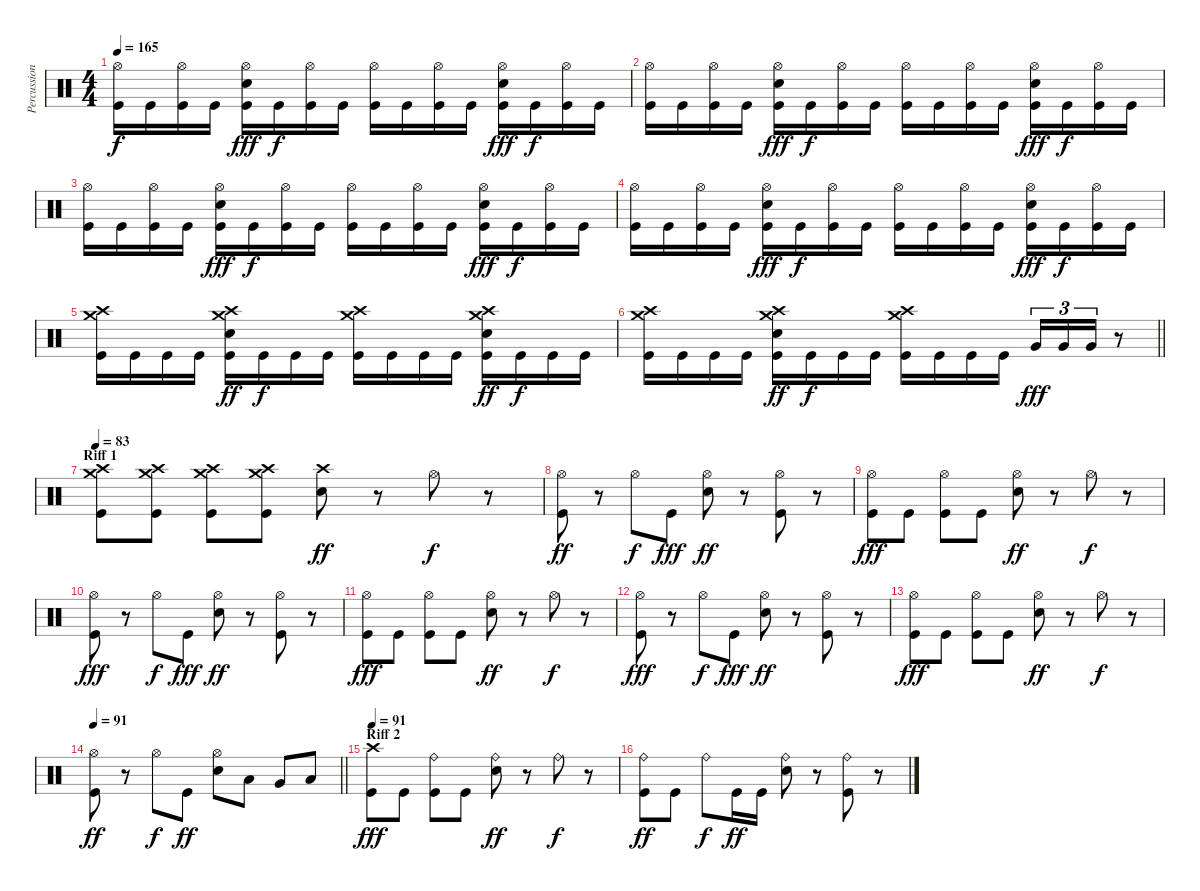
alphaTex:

\track ("Percussions" "Percussion") {instrument percussion}
\staff {score}
\articulation defaults
\ts (4 4)
\tempo 165
\clef neutral
\ks c
("Hi-Hat (open)" "Kick (hit)").16{dy f} "Kick (hit)".16 ("Hi-Hat (open)" "Kick (hit)").16 "Kick (hit)".16 ("Hi-Hat (open)" "Electric Snare (hit)" "Kick (hit)").16{dy fff} "Kick (hit)".16{dy f} ("Hi-Hat (open)" "Kick (hit)").16 "Kick (hit)".16 ("Hi-Hat (open)" "Kick (hit)").16 "Kick (hit)".16 ("Hi-Hat (open)" "Kick (hit)").16 "Kick (hit)".16 ("Hi-Hat (open)" "Electric Snare (hit)" "Kick (hit)").16{dy fff} "Kick (hit)".16{dy f} ("Hi-Hat (open)" "Kick (hit)").16 "Kick (hit)".16 |
("Hi-Hat (open)" "Kick (hit)").16 "Kick (hit)".16 ("Hi-Hat (open)" "Kick (hit)").16 "Kick (hit)".16 ("Hi-Hat (open)" "Electric Snare (hit)" "Kick (hit)").16{dy fff} "Kick (hit)".16{dy f} ("Hi-Hat (open)" "Kick (hit)").16 "Kick (hit)".16 ("Hi-Hat (open)" "Kick (hit)").16 "Kick (hit)".16 ("Hi-Hat (open)" "Kick (hit)").16 "Kick (hit)".16 ("Hi-Hat (open)" "Electric Snare (hit)" "Kick (hit)").16{dy fff} "Kick (hit)".16{dy f} ("Hi-Hat (open)" "Kick (hit)").16 "Kick (hit)".16 |
("Hi-Hat (open)" "Kick (hit)").16 "Kick (hit)".16 ("Hi-Hat (open)" "Kick (hit)").16 "Kick (hit)".16 ("Hi-Hat (open)" "Electric Snare (hit)" "Kick (hit)").16{dy fff} "Kick (hit)".16{dy f} ("Hi-Hat (open)" "Kick (hit)").16 "Kick (hit)".16 ("Hi-Hat (open)" "Kick (hit)").16 "Kick (hit)".16 ("Hi-Hat (open)" "Kick (hit)").16 "Kick (hit)".16 ("Hi-Hat (open)" "Electric Snare (hit)" "Kick (hit)").16{dy fff} "Kick (hit)".16{dy f} ("Hi-Hat (open)" "Kick (hit)").16 "Kick (hit)".16 |
("Hi-Hat (open)" "Kick (hit)").16 "Kick (hit)".16 ("Hi-Hat (open)" "Kick (hit)").16 "Kick (hit)".16 ("Hi-Hat (open)" "Electric Snare (hit)" "Kick (hit)").16{dy fff} "Kick (hit)".16{dy f} ("Hi-Hat (open)" "Kick (hit)").16 "Kick (hit)".16 ("Hi-Hat (open)" "Kick (hit)").16 "Kick (hit)".16 ("Hi-Hat (open)" "Kick (hit)").16 "Kick (hit)".16 ("Hi-Hat (open)" "Electric Snare (hit)" "Kick (hit)").16{dy fff} "Kick (hit)".16{dy f} ("Hi-Hat (open)" "Kick (hit)").16 "Kick (hit)".16 |
("Crash high (hit)" "Crash medium (hit)" "Kick (hit)").16 "Kick (hit)".16 "Kick (hit)".16 "Kick (hit)".16 ("Electric Snare (hit)" "Crash high (hit)" "Crash medium (hit)" "Kick (hit)").16{dy ff} "Kick (hit)".16{dy f} "Kick (hit)".16 "Kick (hit)".16 ("Crash high (hit)" "Crash medium (hit)" "Kick (hit)").16 "Kick (hit)".16 "Kick (hit)".16 "Kick (hit)".16 ("Electric Snare (hit)" "Crash high (hit)" "Crash medium (hit)" "Kick (hit)").16{dy ff} "Kick (hit)".16{dy f} "Kick (hit)".16 "Kick (hit)".16 |
\barLineRight lightlight
("Crash high (hit)" "Crash medium (hit)" "Kick (hit)").16 "Kick (hit)".16 "Kick (hit)".16 "Kick (hit)".16 ("Electric Snare (hit)" "Crash high (hit)" "Crash medium (hit)" "Kick (hit)").16{dy ff} "Kick (hit)".16{dy f} "Kick (hit)".16 "Kick (hit)".16 ("Crash high (hit)" "Crash medium (hit)" "Kick (hit)").16 "Kick (hit)".16 "Kick (hit)".16 "Kick (hit)".16 "Very Low Tom (hit)".16{tu (3 2) dy fff} "Very Low Tom (hit)".16{tu (3 2)} "Very Low Tom (hit)".16{tu (3 2)} r.8 |
\section ("" "Riff 1")
\tempo 83
("Crash high (hit)" "Crash medium (hit)" "Kick (hit)").8 ("Crash high (hit)" "Crash medium (hit)" "Kick (hit)").8 ("Crash high (hit)" "Crash medium (hit)" "Kick (hit)").8 ("Crash high (hit)" "Crash medium (hit)" "Kick (hit)").8 ("Crash high (hit)" "Electric Snare (hit)").8{dy ff} r.8 "Hi-Hat (open)".8{dy f} r.8 |
("Hi-Hat (open)" "Kick (hit)").8{dy ff} r.8{beam split} "Hi-Hat (open)".8{dy f} "Kick (hit)".8{dy fff} ("Hi-Hat (open)" "Electric Snare (hit)").8{dy ff} r.8{beam split} ("Hi-Hat (open)" "Kick (hit)").8 r.8 |
("Hi-Hat (open)" "Kick (hit)").8{dy fff} "Kick (hit)".8 ("Hi-Hat (open)" "Kick (hit)").8 "Kick (hit)".8 ("Hi-Hat (open)" "Electric Snare (hit)").8{dy ff} r.8 "Hi-Hat (open)".8{dy f} r.8 |
("Hi-Hat (open)" "Kick (hit)").8{dy fff} r.8{beam split} "Hi-Hat (open)".8{dy f} "Kick (hit)".8{dy fff} ("Hi-Hat (open)" "Electric Snare (hit)").8{dy ff} r.8{beam split} ("Hi-Hat (open)" "Kick (hit)").8 r.8 |
("Hi-Hat (open)" "Kick (hit)").8{dy fff} "Kick (hit)".8 ("Hi-Hat (open)" "Kick (hit)").8 "Kick (hit)".8 ("Hi-Hat (open)" "Electric Snare (hit)").8{dy ff} r.8 "Hi-Hat (open)".8{dy f} r.8 |
("Hi-Hat (open)" "Kick (hit)").8{dy fff} r.8{beam split} "Hi-Hat (open)".8{dy f} "Kick (hit)".8{dy fff} ("Hi-Hat (open)" "Electric Snare (hit)").8{dy ff} r.8{beam split} ("Hi-Hat (open)" "Kick (hit)").8 r.8 |
("Hi-Hat (open)" "Kick (hit)").8{dy fff} "Kick (hit)".8 ("Hi-Hat (open)" "Kick (hit)").8 "Kick (hit)".8 ("Hi-Hat (open)" "Electric Snare (hit)").8{dy ff} r.8 "Hi-Hat (open)".8{dy f} r.8 |
\tempo 91
\barLineRight lightlight
("Hi-Hat (open)" "Kick (hit)").8{dy ff} r.8{beam split} "Hi-Hat (open)".8{dy f} "Kick (hit)".8{dy ff} ("Hi-Hat (open)" "Electric Snare (hit)").8 "Low Tom (hit)".8 "Very Low Tom (hit)".8 "Low Floor Tom (hit)".8 |
\section ("" "Riff 2")
\tempo 91
("Crash high (hit)" "Kick (hit)").8{dy fff} "Kick (hit)".8 ("Ride (bell)" "Kick (hit)").8 "Kick (hit)".8 ("Ride (bell)" "Electric Snare (hit)").8{dy ff} r.8 "Ride (bell)".8{dy f} r.8 |
("Ride (bell)" "Kick (hit)").8{dy ff} "Kick (hit)".8 "Ride (bell)".8{dy f} "Kick (hit)".16{dy ff} "Kick (hit)".16 ("Ride (bell)" "Electric Snare (hit)").8 r.8 ("Ride (bell)" "Kick (hit)").8 r.8
